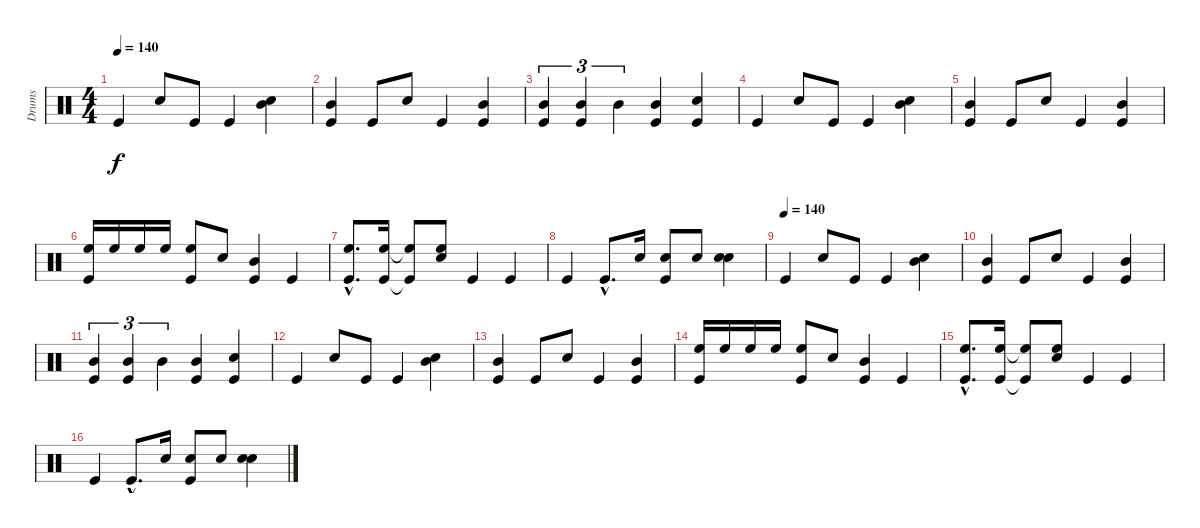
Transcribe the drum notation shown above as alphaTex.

\track ("Drums" "Drums") {instrument percussion}
\staff {score}
\articulation defaults
\ts (4 4)
\tempo 140
\clef neutral
\ks c "Kick (hit)".4{dy f} "Snare (hit) 2".8 "Kick (hit)".8 "Kick (hit)".4
("Snare (hit) 2" "Mid Tom (hit)").4 |
("Kick (hit)" "Mid Tom (hit)").4 "Kick (hit)".8 "Snare (hit) 2".8 "Kick (hit)".4 ("Kick (hit)" "Mid Tom (hit)").4 |
("Kick (hit)" "Mid Tom (hit)").4{tu (3 2)} ("Kick (hit)" "Mid Tom (hit)").4{tu (3 2)} "Mid Tom (hit)".4{tu (3 2)} ("Kick (hit)" "Mid Tom (hit)").4 ("Kick (hit)" "Snare (hit) 2").4 |
"Kick (hit)".4 "Snare (hit) 2".8 "Kick (hit)".8 "Kick (hit)".4 ("Snare (hit) 2" "Mid Tom (hit)").4 |
("Kick (hit)" "Mid Tom (hit)").4 "Kick (hit)".8 "Snare (hit) 2".8 "Kick (hit)".4 ("Kick (hit)" "Mid Tom (hit)").4 |
("Kick (hit)" "High Floor Tom (hit)").16 "High Floor Tom (hit)".16 "High Floor Tom (hit)".16 "High Floor Tom (hit)".16 ("Kick (hit)" "High Floor Tom (hit)").8 "Snare (hit) 2".8 ("Kick (hit)" "Mid Tom (hit)").4 "Kick (hit)".4 |
("Kick (hit)"{hac} "High Floor Tom (hit)"{hac}).8{d} ("Kick (hit)" "High Floor Tom (hit)").16 ("Kick (hit)"{t} "High Floor Tom (hit)"{t}).8 ("Snare (hit) 2" "High Floor Tom (hit)").8 "Kick (hit)".4 "Kick (hit)".4 |
"Kick (hit)".4 "Kick (hit)"{hac}.8{d} "Snare (hit) 2".16 ("Kick (hit)" "Snare (hit) 2").8 "Snare (hit) 2".8 ("Snare (hit) 2" "Snare (hit) 2").4 |
\tempo (140)
"Kick (hit)".4 "Snare (hit) 2".8 "Kick (hit)".8 "Kick (hit)".4 ("Snare (hit) 2" "Mid Tom (hit)").4 |
("Kick (hit)" "Mid Tom (hit)").4 "Kick (hit)".8 "Snare (hit) 2".8 "Kick (hit)".4 ("Kick (hit)" "Mid Tom (hit)").4 |
("Kick (hit)" "Mid Tom (hit)").4{tu (3 2)} ("Kick (hit)" "Mid Tom (hit)").4{tu (3 2)} "Mid Tom (hit)".4{tu (3 2)} ("Kick (hit)" "Mid Tom (hit)").4 ("Kick (hit)" "Snare (hit) 2").4 |
"Kick (hit)".4 "Snare (hit) 2".8 "Kick (hit)".8 "Kick (hit)".4 ("Snare (hit) 2" "Mid Tom (hit)").4 |
("Kick (hit)" "Mid Tom (hit)").4 "Kick (hit)".8 "Snare (hit) 2".8 "Kick (hit)".4 ("Kick (hit)" "Mid Tom (hit)").4 |
("Kick (hit)" "High Floor Tom (hit)").16 "High Floor Tom (hit)".16 "High Floor Tom (hit)".16 "High Floor Tom (hit)".16 ("Kick (hit)" "High Floor Tom (hit)").8 "Snare (hit) 2".8 ("Kick (hit)" "Mid Tom (hit)").4 "Kick (hit)".4 |
("Kick (hit)"{hac} "High Floor Tom (hit)"{hac}).8{d} ("Kick (hit)" "High Floor Tom (hit)").16 ("Kick (hit)"{t} "High Floor Tom (hit)"{t}).8 ("Snare (hit) 2" "High Floor Tom (hit)").8 "Kick (hit)".4 "Kick (hit)".4 |
"Kick (hit)".4 "Kick (hit)"{hac}.8{d} "Snare (hit) 2".16 ("Kick (hit)" "Snare (hit) 2").8 "Snare (hit) 2".8 ("Snare (hit) 2" "Snare (hit) 2").4
